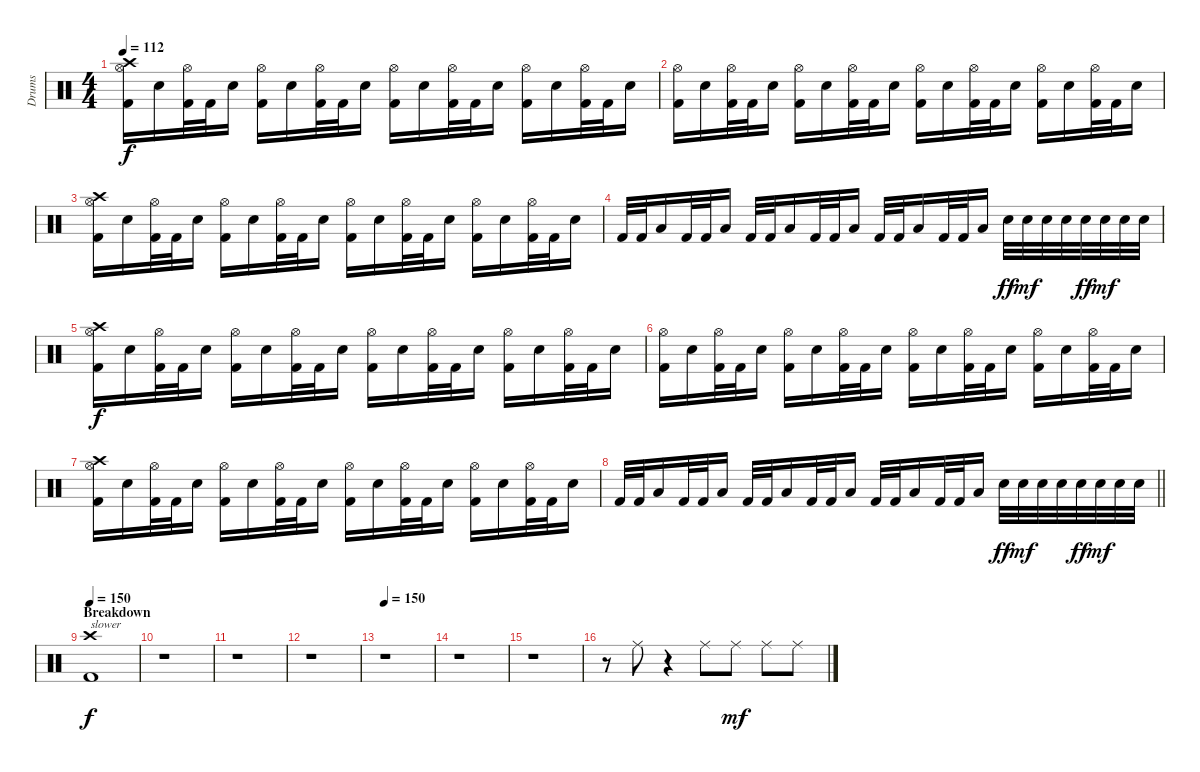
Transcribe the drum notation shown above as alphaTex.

\track ("Drums" "Drums") {instrument percussion}
\staff {score}
\articulation defaults
\ts (4 4)
\tempo 112
\clef neutral
\ks c
("Crash high (hit)" "Hi-Hat (open)" "Kick (hit) 2").16{dy f} "Electric Snare (hit)".16 ("Hi-Hat (open)" "Kick (hit) 2").32 "Kick (hit) 2".32 "Electric Snare (hit)".16 ("Hi-Hat (open)" "Kick (hit) 2").16 "Electric Snare (hit)".16 ("Hi-Hat (open)" "Kick (hit) 2").32 "Kick (hit) 2".32 "Electric Snare (hit)".16 ("Hi-Hat (open)" "Kick (hit) 2").16 "Electric Snare (hit)".16 ("Hi-Hat (open)" "Kick (hit) 2").32 "Kick (hit) 2".32 "Electric Snare (hit)".16 ("Hi-Hat (open)" "Kick (hit) 2").16 "Electric Snare (hit)".16 ("Hi-Hat (open)" "Kick (hit) 2").32 "Kick (hit) 2".32 "Electric Snare (hit)".16 |
("Hi-Hat (open)" "Kick (hit) 2").16 "Electric Snare (hit)".16 ("Hi-Hat (open)" "Kick (hit) 2").32 "Kick (hit) 2".32 "Electric Snare (hit)".16 ("Hi-Hat (open)" "Kick (hit) 2").16 "Electric Snare (hit)".16 ("Hi-Hat (open)" "Kick (hit) 2").32 "Kick (hit) 2".32 "Electric Snare (hit)".16 ("Hi-Hat (open)" "Kick (hit) 2").16 "Electric Snare (hit)".16 ("Hi-Hat (open)" "Kick (hit) 2").32 "Kick (hit) 2".32 "Electric Snare (hit)".16 ("Hi-Hat (open)" "Kick (hit) 2").16 "Electric Snare (hit)".16 ("Hi-Hat (open)" "Kick (hit) 2").32 "Kick (hit) 2".32 "Electric Snare (hit)".16 |
("Crash high (hit)" "Hi-Hat (open)" "Kick (hit) 2").16 "Electric Snare (hit)".16 ("Hi-Hat (open)" "Kick (hit) 2").32 "Kick (hit) 2".32 "Electric Snare (hit)".16 ("Hi-Hat (open)" "Kick (hit) 2").16 "Electric Snare (hit)".16 ("Hi-Hat (open)" "Kick (hit) 2").32 "Kick (hit) 2".32 "Electric Snare (hit)".16 ("Hi-Hat (open)" "Kick (hit) 2").16 "Electric Snare (hit)".16 ("Hi-Hat (open)" "Kick (hit) 2").32 "Kick (hit) 2".32 "Electric Snare (hit)".16 ("Hi-Hat (open)" "Kick (hit) 2").16 "Electric Snare (hit)".16 ("Hi-Hat (open)" "Kick (hit) 2").32 "Kick (hit) 2".32 "Electric Snare (hit)".16 |
"Kick (hit) 2".32 "Kick (hit) 2".32 "Low Tom (hit)".16 "Kick (hit) 2".32 "Kick (hit) 2".32 "Low Tom (hit)".16 "Kick (hit) 2".32 "Kick (hit) 2".32 "Low Tom (hit)".16 "Kick (hit) 2".32 "Kick (hit) 2".32 "Low Tom (hit)".16 "Kick (hit) 2".32 "Kick (hit) 2".32 "Low Tom (hit)".16 "Kick (hit) 2".32 "Kick (hit) 2".32 "Low Tom (hit)".16 "Electric Snare (hit)".32{dy ff} "Electric Snare (hit)".32{dy mf} "Electric Snare (hit)".32 "Electric Snare (hit)".32 "Electric Snare (hit)".32{dy ff} "Electric Snare (hit)".32{dy mf} "Electric Snare (hit)".32 "Electric Snare (hit)".32 |
("Crash high (hit)" "Hi-Hat (open)" "Kick (hit) 2").16{dy f} "Electric Snare (hit)".16 ("Hi-Hat (open)" "Kick (hit) 2").32 "Kick (hit) 2".32 "Electric Snare (hit)".16 ("Hi-Hat (open)" "Kick (hit) 2").16 "Electric Snare (hit)".16 ("Hi-Hat (open)" "Kick (hit) 2").32 "Kick (hit) 2".32 "Electric Snare (hit)".16 ("Hi-Hat (open)" "Kick (hit) 2").16 "Electric Snare (hit)".16 ("Hi-Hat (open)" "Kick (hit) 2").32 "Kick (hit) 2".32 "Electric Snare (hit)".16 ("Hi-Hat (open)" "Kick (hit) 2").16 "Electric Snare (hit)".16 ("Hi-Hat (open)" "Kick (hit) 2").32 "Kick (hit) 2".32 "Electric Snare (hit)".16 |
("Hi-Hat (open)" "Kick (hit) 2").16 "Electric Snare (hit)".16 ("Hi-Hat (open)" "Kick (hit) 2").32 "Kick (hit) 2".32 "Electric Snare (hit)".16 ("Hi-Hat (open)" "Kick (hit) 2").16 "Electric Snare (hit)".16 ("Hi-Hat (open)" "Kick (hit) 2").32 "Kick (hit) 2".32 "Electric Snare (hit)".16 ("Hi-Hat (open)" "Kick (hit) 2").16 "Electric Snare (hit)".16 ("Hi-Hat (open)" "Kick (hit) 2").32 "Kick (hit) 2".32 "Electric Snare (hit)".16 ("Hi-Hat (open)" "Kick (hit) 2").16 "Electric Snare (hit)".16 ("Hi-Hat (open)" "Kick (hit) 2").32 "Kick (hit) 2".32 "Electric Snare (hit)".16 |
("Crash high (hit)" "Hi-Hat (open)" "Kick (hit) 2").16 "Electric Snare (hit)".16 ("Hi-Hat (open)" "Kick (hit) 2").32 "Kick (hit) 2".32 "Electric Snare (hit)".16 ("Hi-Hat (open)" "Kick (hit) 2").16 "Electric Snare (hit)".16 ("Hi-Hat (open)" "Kick (hit) 2").32 "Kick (hit) 2".32 "Electric Snare (hit)".16 ("Hi-Hat (open)" "Kick (hit) 2").16 "Electric Snare (hit)".16 ("Hi-Hat (open)" "Kick (hit) 2").32 "Kick (hit) 2".32 "Electric Snare (hit)".16 ("Hi-Hat (open)" "Kick (hit) 2").16 "Electric Snare (hit)".16 ("Hi-Hat (open)" "Kick (hit) 2").32 "Kick (hit) 2".32 "Electric Snare (hit)".16 |
\barLineRight lightlight "Kick (hit) 2".32 "Kick (hit) 2".32 "Low Tom (hit)".16 "Kick (hit) 2".32 "Kick (hit) 2".32 "Low Tom (hit)".16 "Kick (hit) 2".32 "Kick (hit) 2".32 "Low Tom (hit)".16 "Kick (hit) 2".32 "Kick (hit) 2".32 "Low Tom (hit)".16 "Kick (hit) 2".32 "Kick (hit) 2".32 "Low Tom (hit)".16 "Kick (hit) 2".32 "Kick (hit) 2".32 "Low Tom (hit)".16 "Electric Snare (hit)".32{dy ff} "Electric Snare (hit)".32{dy mf} "Electric Snare (hit)".32 "Electric Snare (hit)".32 "Electric Snare (hit)".32{dy ff} "Electric Snare (hit)".32{dy mf} "Electric Snare (hit)".32 "Electric Snare (hit)".32
|
\section ("" "Breakdown")
\tempo 150
("Crash high (hit)" "Kick (hit) 2").1{txt "slower " dy f} |
r.1 |
r.1 |
r.1 |
\tempo 150
r.1 |
r.1 |
r.1 |
r.8 "Ride (middle)".8 r.4 "Ride (middle)".8 "Ride (middle)".8{dy mf} "Ride (middle)".8 "Ride (middle)".8
